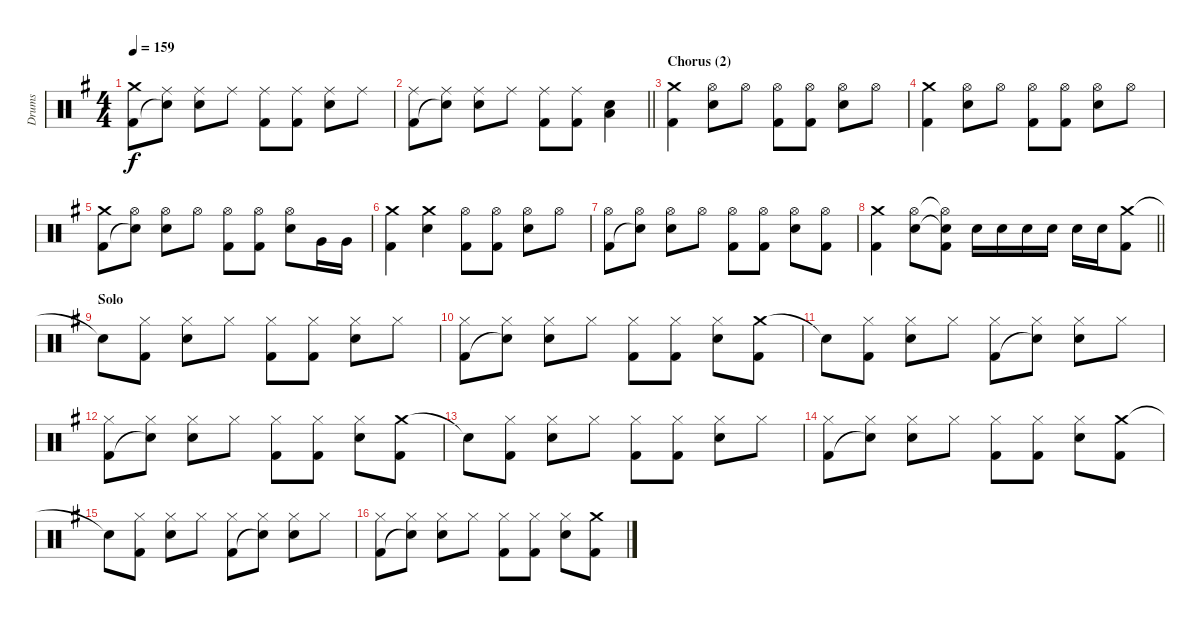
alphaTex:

\track ("Drums" "Drums") {instrument percussion}
\staff {score}
\articulation defaults
\ts (4 4)
\tempo 159
\clef neutral
\ks g
("Crash medium (hit)" "Kick (hit) 2").8{dy f} ("Ride (middle)" "Snare (hit)"{t}).8 ("Ride (middle)" "Electric Snare (hit)").8 "Ride (middle)".8 ("Ride (middle)" "Kick (hit) 2").8 ("Ride (middle)" "Kick (hit) 2").8 ("Ride (middle)" "Electric Snare (hit)").8 "Ride (middle)".8 |
\barLineRight lightlight
("Ride (middle)" "Kick (hit) 2").8 ("Ride (middle)" "Snare (hit)"{t}).8 ("Ride (middle)" "Electric Snare (hit)").8 "Ride (middle)".8 ("Ride (middle)" "Kick (hit) 2").8 ("Ride (middle)" "Kick (hit) 2").8 ("Electric Snare (hit)" "Low Floor Tom (hit)").4 |
\section ("" "Chorus (2)")
("Crash medium (hit)" "Kick (hit) 2").4 ("Hi-Hat (open)" "Electric Snare (hit)").8 "Hi-Hat (open)".8 ("Hi-Hat (open)" "Kick (hit) 2").8 ("Hi-Hat (open)" "Kick (hit) 2").8 ("Hi-Hat (open)" "Electric Snare (hit)").8 "Hi-Hat (open)".8 |
("Crash medium (hit)" "Kick (hit) 2").4 ("Hi-Hat (open)" "Electric Snare (hit)").8 "Hi-Hat (open)".8 ("Hi-Hat (open)" "Kick (hit) 2").8 ("Hi-Hat (open)" "Kick (hit) 2").8 ("Hi-Hat (open)" "Electric Snare (hit)").8 "Hi-Hat (open)".8 |
("Crash medium (hit)" "Kick (hit) 2").8 ("Hi-Hat (open)" "Snare (hit)"{t}).8 ("Hi-Hat (open)" "Electric Snare (hit)").8 "Hi-Hat (open)".8 ("Hi-Hat (open)" "Kick (hit) 2").8 ("Hi-Hat (open)" "Kick (hit) 2").8 ("Hi-Hat (open)" "Electric Snare (hit)").8 "Very Low Tom (hit)".16 "Very Low Tom (hit)".16 |
("Crash medium (hit)" "Kick (hit) 2").4 ("Crash medium (hit)" "Electric Snare (hit)").4 ("Hi-Hat (open)" "Kick (hit) 2").8 ("Hi-Hat (open)" "Kick (hit) 2").8 ("Hi-Hat (open)" "Electric Snare (hit)").8 "Hi-Hat (open)".8 |
("Hi-Hat (open)" "Kick (hit) 2").8 ("Hi-Hat (open)" "Snare (hit)"{t}).8 ("Hi-Hat (open)" "Electric Snare (hit)").8 "Hi-Hat (open)".8 ("Hi-Hat (open)" "Kick (hit) 2").8 ("Hi-Hat (open)" "Kick (hit) 2").8 ("Hi-Hat (open)" "Electric Snare (hit)").8 ("Hi-Hat (open)" "Kick (hit) 2").8 |
\barLineRight lightlight
("Crash medium (hit)" "Kick (hit) 2").4 ("Hi-Hat (open)" "Electric Snare (hit)").8 ("Hi-Hat (open)"{t} "Snare (hit)"{t} "Kick (hit) 2").8 "Electric Snare (hit)".16 "Electric Snare (hit)".16 "Electric Snare (hit)".16 "Electric Snare (hit)".16 "Electric Snare (hit)".16 "Electric Snare (hit)".16 ("Crash medium (hit)" "Kick (hit) 2").8 |
\section ("" "Solo")
"Snare (hit)"{t}.8 ("Hi-Hat (closed)" "Kick (hit) 2").8 ("Hi-Hat (closed)" "Electric Snare (hit)").8 "Hi-Hat (closed)".8 ("Hi-Hat (closed)" "Kick (hit) 2").8 ("Hi-Hat (closed)" "Kick (hit) 2").8 ("Hi-Hat (closed)" "Electric Snare (hit)").8 "Hi-Hat (closed)".8 |
("Hi-Hat (closed)" "Kick (hit) 2").8 ("Hi-Hat (closed)" "Snare (hit)"{t}).8 ("Hi-Hat (closed)" "Electric Snare (hit)").8 "Hi-Hat (closed)".8 ("Hi-Hat (closed)" "Kick (hit) 2").8 ("Hi-Hat (closed)" "Kick (hit) 2").8 ("Hi-Hat (closed)" "Electric Snare (hit)").8 ("Crash medium (hit)" "Kick (hit) 2").8 |
"Snare (hit)"{t}.8 ("Hi-Hat (closed)" "Kick (hit) 2").8 ("Hi-Hat (closed)" "Electric Snare (hit)").8 "Hi-Hat (closed)".8 ("Hi-Hat (closed)" "Kick (hit) 2").8 ("Hi-Hat (closed)" "Snare (hit)"{t}).8 ("Hi-Hat (closed)" "Electric Snare (hit)").8 "Hi-Hat (closed)".8 |
("Hi-Hat (closed)" "Kick (hit) 2").8 ("Hi-Hat (closed)" "Snare (hit)"{t}).8 ("Hi-Hat (closed)" "Electric Snare (hit)").8 "Hi-Hat (closed)".8 ("Hi-Hat (closed)" "Kick (hit) 2").8 ("Hi-Hat (closed)" "Kick (hit) 2").8 ("Hi-Hat (closed)" "Electric Snare (hit)").8 ("Crash medium (hit)" "Kick (hit) 2").8 |
"Snare (hit)"{t}.8 ("Hi-Hat (closed)" "Kick (hit) 2").8 ("Hi-Hat (closed)" "Electric Snare (hit)").8 "Hi-Hat (closed)".8 ("Hi-Hat (closed)" "Kick (hit) 2").8 ("Hi-Hat (closed)" "Kick (hit) 2").8 ("Hi-Hat (closed)" "Electric Snare (hit)").8 "Hi-Hat (closed)".8 |
("Hi-Hat (closed)" "Kick (hit) 2").8 ("Hi-Hat (closed)" "Snare (hit)"{t}).8 ("Hi-Hat (closed)" "Electric Snare (hit)").8 "Hi-Hat (closed)".8 ("Hi-Hat (closed)" "Kick (hit) 2").8 ("Hi-Hat (closed)" "Kick (hit) 2").8 ("Hi-Hat (closed)" "Electric Snare (hit)").8 ("Crash medium (hit)" "Kick (hit) 2").8 |
"Snare (hit)"{t}.8 ("Hi-Hat (closed)" "Kick (hit) 2").8 ("Hi-Hat (closed)" "Electric Snare (hit)").8 "Hi-Hat (closed)".8 ("Hi-Hat (closed)" "Kick (hit) 2").8 ("Hi-Hat (closed)" "Snare (hit)"{t}).8 ("Hi-Hat (closed)" "Electric Snare (hit)").8 "Hi-Hat (closed)".8 |
("Hi-Hat (closed)" "Kick (hit) 2").8 ("Hi-Hat (closed)" "Snare (hit)"{t}).8 ("Hi-Hat (closed)" "Electric Snare (hit)").8 "Hi-Hat (closed)".8 ("Hi-Hat (closed)" "Kick (hit) 2").8 ("Hi-Hat (closed)" "Kick (hit) 2").8 ("Hi-Hat (closed)" "Electric Snare (hit)").8 ("Crash medium (hit)" "Kick (hit) 2").8
